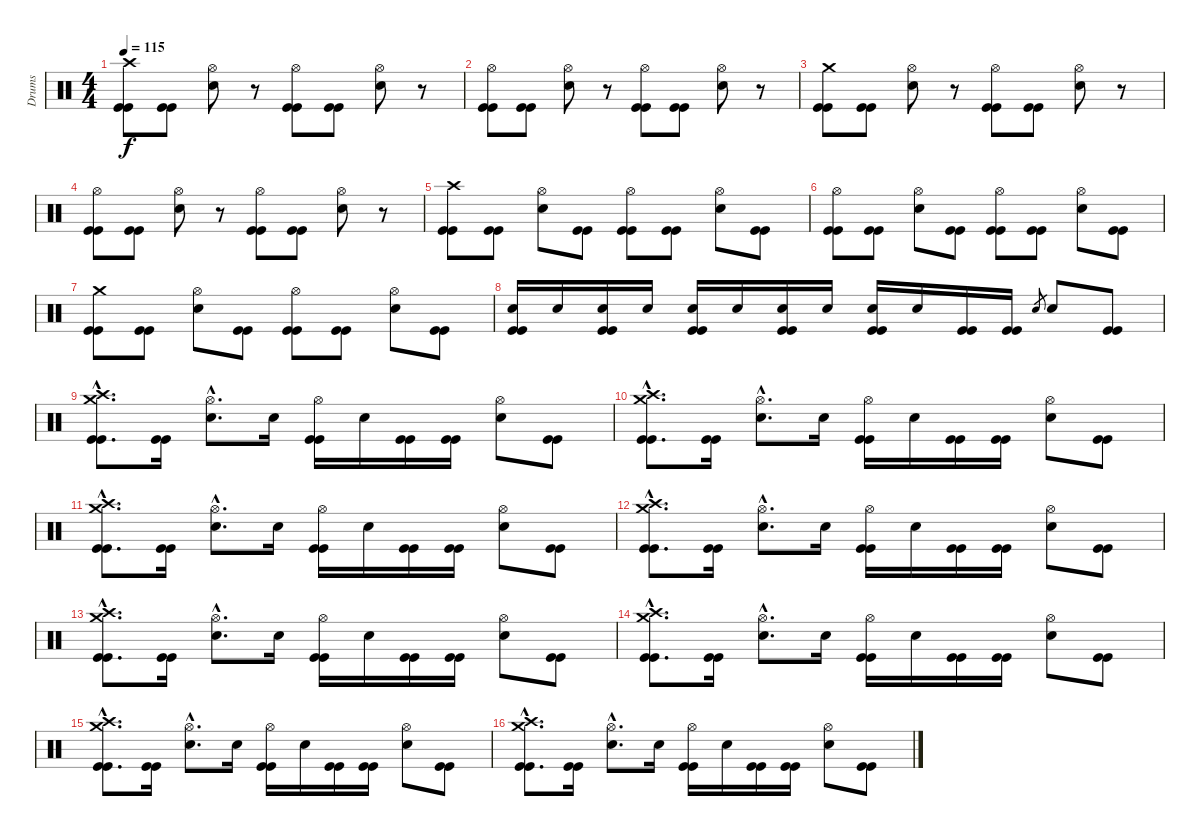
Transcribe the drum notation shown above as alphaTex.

\track ("Drums" "Drums") {instrument percussion}
\staff {score}
\articulation defaults
\ts (4 4)
\tempo 115
\clef neutral
\ks c
("Crash high (hit)" "Kick (hit)" "Kick (hit)").8{dy f} ("Kick (hit)" "Kick (hit)").8 ("Hi-Hat (open)" "Electric Snare (hit)").8 r.8 ("Hi-Hat (open)" "Kick (hit)" "Kick (hit)").8 ("Kick (hit)" "Kick (hit)").8 ("Hi-Hat (open)" "Electric Snare (hit)").8 r.8 |
("Hi-Hat (open)" "Kick (hit)" "Kick (hit)").8 ("Kick (hit)" "Kick (hit)").8 ("Hi-Hat (open)" "Electric Snare (hit)").8 r.8 ("Hi-Hat (open)" "Kick (hit)" "Kick (hit)").8 ("Kick (hit)" "Kick (hit)").8 ("Hi-Hat (open)" "Electric Snare (hit)").8 r.8 |
("Crash medium (hit)" "Kick (hit)" "Kick (hit)").8 ("Kick (hit)" "Kick (hit)").8 ("Hi-Hat (open)" "Electric Snare (hit)").8 r.8 ("Hi-Hat (open)" "Kick (hit)" "Kick (hit)").8 ("Kick (hit)" "Kick (hit)").8 ("Hi-Hat (open)" "Electric Snare (hit)").8 r.8 |
("Hi-Hat (open)" "Kick (hit)" "Kick (hit)").8 ("Kick (hit)" "Kick (hit)").8 ("Hi-Hat (open)" "Electric Snare (hit)").8 r.8 ("Hi-Hat (open)" "Kick (hit)" "Kick (hit)").8 ("Kick (hit)" "Kick (hit)").8 ("Hi-Hat (open)" "Electric Snare (hit)").8 r.8 |
("Crash high (hit)" "Kick (hit)" "Kick (hit)").8 ("Kick (hit)" "Kick (hit)").8 ("Hi-Hat (open)" "Electric Snare (hit)").8 ("Kick (hit)" "Kick (hit)").8 ("Hi-Hat (open)" "Kick (hit)" "Kick (hit)").8 ("Kick (hit)" "Kick (hit)").8 ("Hi-Hat (open)" "Electric Snare (hit)").8 ("Kick (hit)" "Kick (hit)").8 |
("Hi-Hat (open)" "Kick (hit)" "Kick (hit)").8 ("Kick (hit)" "Kick (hit)").8 ("Hi-Hat (open)" "Electric Snare (hit)").8 ("Kick (hit)" "Kick (hit)").8 ("Hi-Hat (open)" "Kick (hit)" "Kick (hit)").8 ("Kick (hit)" "Kick (hit)").8 ("Hi-Hat (open)" "Electric Snare (hit)").8 ("Kick (hit)" "Kick (hit)").8 |
("Crash medium (hit)" "Kick (hit)" "Kick (hit)").8 ("Kick (hit)" "Kick (hit)").8 ("Hi-Hat (open)" "Electric Snare (hit)").8 ("Kick (hit)" "Kick (hit)").8 ("Hi-Hat (open)" "Kick (hit)" "Kick (hit)").8 ("Kick (hit)" "Kick (hit)").8 ("Hi-Hat (open)" "Electric Snare (hit)").8 ("Kick (hit)" "Kick (hit)").8 |
("Electric Snare (hit)" "Kick (hit)" "Kick (hit)").16 "Electric Snare (hit)".16 ("Electric Snare (hit)" "Kick (hit)" "Kick (hit)").16 "Electric Snare (hit)".16 ("Electric Snare (hit)" "Kick (hit)" "Kick (hit)").16 "Electric Snare (hit)".16 ("Electric Snare (hit)" "Kick (hit)" "Kick (hit)").16 "Electric Snare (hit)".16 ("Electric Snare (hit)" "Kick (hit)" "Kick (hit)").16 "Electric Snare (hit)".16 ("Kick (hit)" "Kick (hit)").16 ("Kick (hit)" "Kick (hit)").16 "Electric Snare (hit)".8{gr} "Electric Snare (hit)".8 ("Kick (hit)" "Kick (hit)").8 |
("Crash high (hit)"{hac} "Crash medium (hit)"{hac} "Kick (hit)"{hac} "Kick (hit)"{hac}).8{d} ("Kick (hit)" "Kick (hit)").16 ("Hi-Hat (open)"{hac} "Electric Snare (hit)"{hac}).8{d} "Electric Snare (hit)".16 ("Hi-Hat (open)" "Kick (hit)" "Kick (hit)").16 "Electric Snare (hit)".16 ("Kick (hit)" "Kick (hit)").16 ("Kick (hit)" "Kick (hit)").16 ("Hi-Hat (open)" "Electric Snare (hit)").8 ("Kick (hit)" "Kick (hit)").8 |
("Crash high (hit)"{hac} "Crash medium (hit)"{hac} "Kick (hit)"{hac} "Kick (hit)"{hac}).8{d} ("Kick (hit)" "Kick (hit)").16 ("Hi-Hat (open)"{hac} "Electric Snare (hit)"{hac}).8{d} "Electric Snare (hit)".16 ("Hi-Hat (open)" "Kick (hit)" "Kick (hit)").16 "Electric Snare (hit)".16 ("Kick (hit)" "Kick (hit)").16 ("Kick (hit)" "Kick (hit)").16 ("Hi-Hat (open)" "Electric Snare (hit)").8 ("Kick (hit)" "Kick (hit)").8 |
("Crash high (hit)"{hac} "Crash medium (hit)"{hac} "Kick (hit)"{hac} "Kick (hit)"{hac}).8{d} ("Kick (hit)" "Kick (hit)").16 ("Hi-Hat (open)"{hac} "Electric Snare (hit)"{hac}).8{d} "Electric Snare (hit)".16 ("Hi-Hat (open)" "Kick (hit)" "Kick (hit)").16 "Electric Snare (hit)".16 ("Kick (hit)" "Kick (hit)").16 ("Kick (hit)" "Kick (hit)").16 ("Hi-Hat (open)" "Electric Snare (hit)").8 ("Kick (hit)" "Kick (hit)").8 |
("Crash high (hit)"{hac} "Crash medium (hit)"{hac} "Kick (hit)"{hac} "Kick (hit)"{hac}).8{d} ("Kick (hit)" "Kick (hit)").16 ("Hi-Hat (open)"{hac} "Electric Snare (hit)"{hac}).8{d} "Electric Snare (hit)".16 ("Hi-Hat (open)" "Kick (hit)" "Kick (hit)").16 "Electric Snare (hit)".16 ("Kick (hit)" "Kick (hit)").16 ("Kick (hit)" "Kick (hit)").16 ("Hi-Hat (open)" "Electric Snare (hit)").8 ("Kick (hit)" "Kick (hit)").8 |
("Crash high (hit)"{hac} "Crash medium (hit)"{hac} "Kick (hit)"{hac} "Kick (hit)"{hac}).8{d} ("Kick (hit)" "Kick (hit)").16 ("Hi-Hat (open)"{hac} "Electric Snare (hit)"{hac}).8{d} "Electric Snare (hit)".16 ("Hi-Hat (open)" "Kick (hit)" "Kick (hit)").16 "Electric Snare (hit)".16 ("Kick (hit)" "Kick (hit)").16 ("Kick (hit)" "Kick (hit)").16 ("Hi-Hat (open)" "Electric Snare (hit)").8 ("Kick (hit)" "Kick (hit)").8 |
("Crash high (hit)"{hac} "Crash medium (hit)"{hac} "Kick (hit)"{hac} "Kick (hit)"{hac}).8{d} ("Kick (hit)" "Kick (hit)").16 ("Hi-Hat (open)"{hac} "Electric Snare (hit)"{hac}).8{d} "Electric Snare (hit)".16 ("Hi-Hat (open)" "Kick (hit)" "Kick (hit)").16 "Electric Snare (hit)".16 ("Kick (hit)" "Kick (hit)").16 ("Kick (hit)" "Kick (hit)").16 ("Hi-Hat (open)" "Electric Snare (hit)").8 ("Kick (hit)" "Kick (hit)").8 |
("Crash high (hit)"{hac} "Crash medium (hit)"{hac} "Kick (hit)"{hac} "Kick (hit)"{hac}).8{d} ("Kick (hit)" "Kick (hit)").16 ("Hi-Hat (open)"{hac} "Electric Snare (hit)"{hac}).8{d} "Electric Snare (hit)".16 ("Hi-Hat (open)" "Kick (hit)" "Kick (hit)").16 "Electric Snare (hit)".16 ("Kick (hit)" "Kick (hit)").16 ("Kick (hit)" "Kick (hit)").16 ("Hi-Hat (open)" "Electric Snare (hit)").8 ("Kick (hit)" "Kick (hit)").8 |
("Crash high (hit)"{hac} "Crash medium (hit)"{hac} "Kick (hit)"{hac} "Kick (hit)"{hac}).8{d} ("Kick (hit)" "Kick (hit)").16 ("Hi-Hat (open)"{hac} "Electric Snare (hit)"{hac}).8{d} "Electric Snare (hit)".16 ("Hi-Hat (open)" "Kick (hit)" "Kick (hit)").16 "Electric Snare (hit)".16 ("Kick (hit)" "Kick (hit)").16 ("Kick (hit)" "Kick (hit)").16 ("Hi-Hat (open)" "Electric Snare (hit)").8 ("Kick (hit)" "Kick (hit)").8
